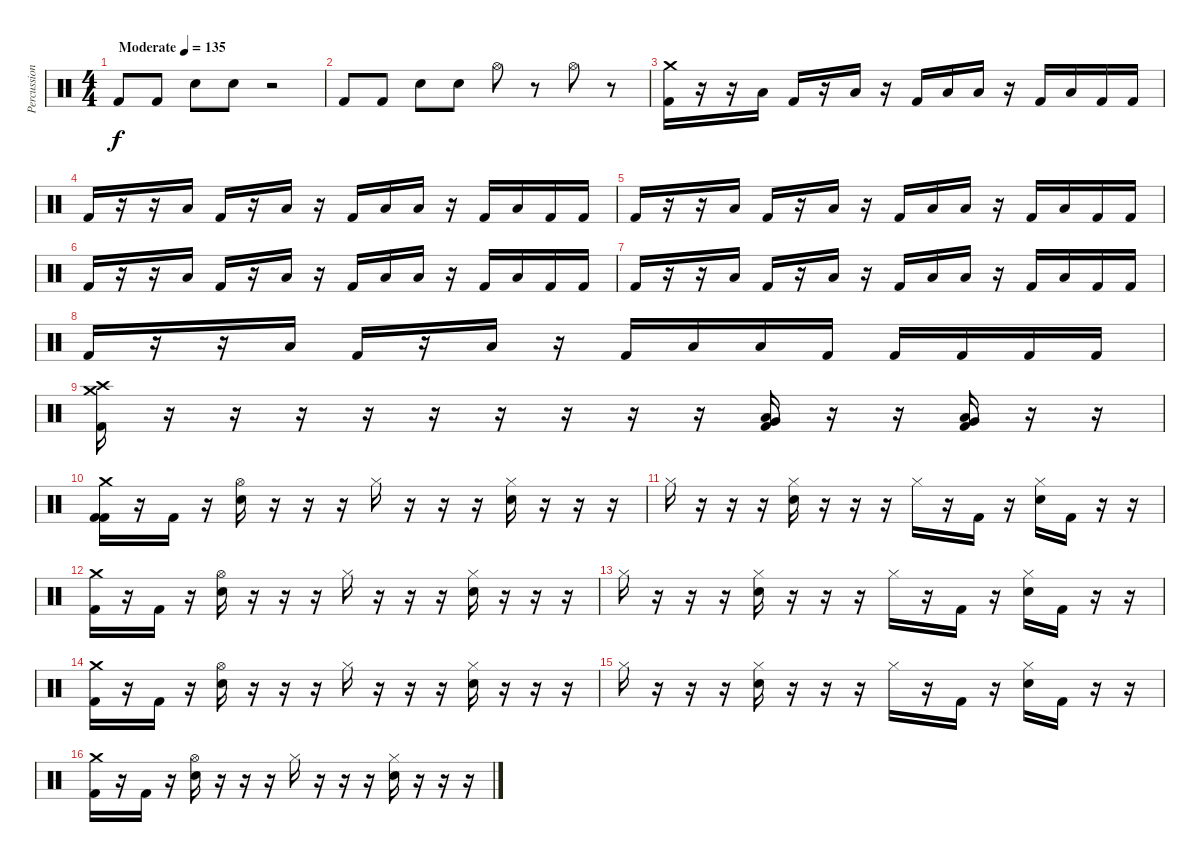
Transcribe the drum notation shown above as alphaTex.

\track ("Percussion" "Percussion") {instrument percussion}
\staff {score}
\articulation defaults
\ts (4 4)
\tempo (135 "Moderate")
\clef neutral
\ks c "Kick (hit) 2".8{dy f} "Kick (hit) 2".8 "Electric Snare (hit)".8 "Electric Snare (hit)".8
r.2 |
"Kick (hit) 2".8 "Kick (hit) 2".8 "Electric Snare (hit)".8 "Electric Snare (hit)".8 "Hi-Hat (open)".8 r.8 "Hi-Hat (open)".8 r.8 |
("Kick (hit) 2" "Crash medium (hit)").16 r.16 r.16 "Low Tom (hit)".16 "Kick (hit) 2".16 r.16 "Low Tom (hit)".16 r.16 "Kick (hit) 2".16 "Low Tom (hit)".16 "Low Tom (hit)".16 r.16 "Kick (hit) 2".16 "Low Tom (hit)".16 "Kick (hit) 2".16 "Kick (hit) 2".16 |
"Kick (hit) 2".16 r.16 r.16 "Low Tom (hit)".16 "Kick (hit) 2".16 r.16 "Low Tom (hit)".16 r.16 "Kick (hit) 2".16 "Low Tom (hit)".16 "Low Tom (hit)".16 r.16 "Kick (hit) 2".16 "Low Tom (hit)".16 "Kick (hit) 2".16 "Kick (hit) 2".16 |
"Kick (hit) 2".16 r.16 r.16 "Low Tom (hit)".16 "Kick (hit) 2".16 r.16 "Low Tom (hit)".16 r.16 "Kick (hit) 2".16 "Low Tom (hit)".16 "Low Tom (hit)".16 r.16 "Kick (hit) 2".16 "Low Tom (hit)".16 "Kick (hit) 2".16 "Kick (hit) 2".16 |
"Kick (hit) 2".16 r.16 r.16 "Low Tom (hit)".16 "Kick (hit) 2".16 r.16 "Low Tom (hit)".16 r.16 "Kick (hit) 2".16 "Low Tom (hit)".16 "Low Tom (hit)".16 r.16 "Kick (hit) 2".16 "Low Tom (hit)".16 "Kick (hit) 2".16 "Kick (hit) 2".16 |
"Kick (hit) 2".16 r.16 r.16 "Low Tom (hit)".16 "Kick (hit) 2".16 r.16 "Low Tom (hit)".16 r.16 "Kick (hit) 2".16 "Low Tom (hit)".16 "Low Tom (hit)".16 r.16 "Kick (hit) 2".16 "Low Tom (hit)".16 "Kick (hit) 2".16 "Kick (hit) 2".16 |
"Kick (hit) 2".16 r.16 r.16 "Low Tom (hit)".16 "Kick (hit) 2".16 r.16 "Low Tom (hit)".16 r.16 "Kick (hit) 2".16 "Low Tom (hit)".16 "Low Tom (hit)".16 "Kick (hit) 2".16 "Kick (hit) 2".16 "Kick (hit) 2".16 "Kick (hit) 2".16 "Kick (hit) 2".16 |
("Crash medium (hit)" "Kick (hit) 2" "Crash high (hit)").16 r.16 r.16 r.16 r.16 r.16 r.16 r.16 r.16 r.16 ("Very Low Tom (hit)" "Low Tom (hit)" "Kick (hit) 2").16 r.16 r.16 ("Very Low Tom (hit)" "Low Tom (hit)" "Kick (hit) 2").16 r.16 r.16 |
("Crash medium (hit)" "Kick (hit) 2" "Kick (hit) 2").16{volume 15} r.16 "Kick (hit) 2".16 r.16 ("Hi-Hat (open)" "Electric Snare (hit)").16 r.16 r.16 r.16 "Hi-Hat (closed)".16 r.16 r.16 r.16 ("Hi-Hat (closed)" "Electric Snare (hit)").16 r.16 r.16 r.16 |
"Hi-Hat (closed)".16 r.16 r.16 r.16 ("Hi-Hat (closed)" "Electric Snare (hit)").16 r.16 r.16 r.16 "Hi-Hat (closed)".16 r.16 "Kick (hit) 2".16 r.16 ("Hi-Hat (closed)" "Electric Snare (hit)").16 "Kick (hit) 2".16 r.16 r.16 |
("Crash medium (hit)" "Kick (hit) 2").16 r.16 "Kick (hit) 2".16 r.16 ("Hi-Hat (open)" "Electric Snare (hit)").16 r.16 r.16 r.16 "Hi-Hat (closed)".16 r.16 r.16 r.16 ("Hi-Hat (closed)" "Electric Snare (hit)").16 r.16 r.16 r.16 |
"Hi-Hat (closed)".16 r.16 r.16 r.16 ("Hi-Hat (closed)" "Electric Snare (hit)").16 r.16 r.16 r.16 "Hi-Hat (closed)".16 r.16 "Kick (hit) 2".16 r.16 ("Hi-Hat (closed)" "Electric Snare (hit)").16 "Kick (hit) 2".16 r.16 r.16 |
("Crash medium (hit)" "Kick (hit) 2").16 r.16 "Kick (hit) 2".16 r.16 ("Hi-Hat (open)" "Electric Snare (hit)").16 r.16 r.16 r.16 "Hi-Hat (closed)".16 r.16 r.16 r.16 ("Hi-Hat (closed)" "Electric Snare (hit)").16 r.16 r.16 r.16 |
"Hi-Hat (closed)".16 r.16 r.16 r.16 ("Hi-Hat (closed)" "Electric Snare (hit)").16 r.16 r.16 r.16 "Hi-Hat (closed)".16 r.16 "Kick (hit) 2".16 r.16 ("Hi-Hat (closed)" "Electric Snare (hit)").16 "Kick (hit) 2".16 r.16 r.16 |
("Crash medium (hit)" "Kick (hit) 2").16 r.16 "Kick (hit) 2".16 r.16 ("Hi-Hat (open)" "Electric Snare (hit)").16 r.16 r.16 r.16 "Hi-Hat (closed)".16 r.16 r.16 r.16 ("Hi-Hat (closed)" "Electric Snare (hit)").16 r.16 r.16 r.16
